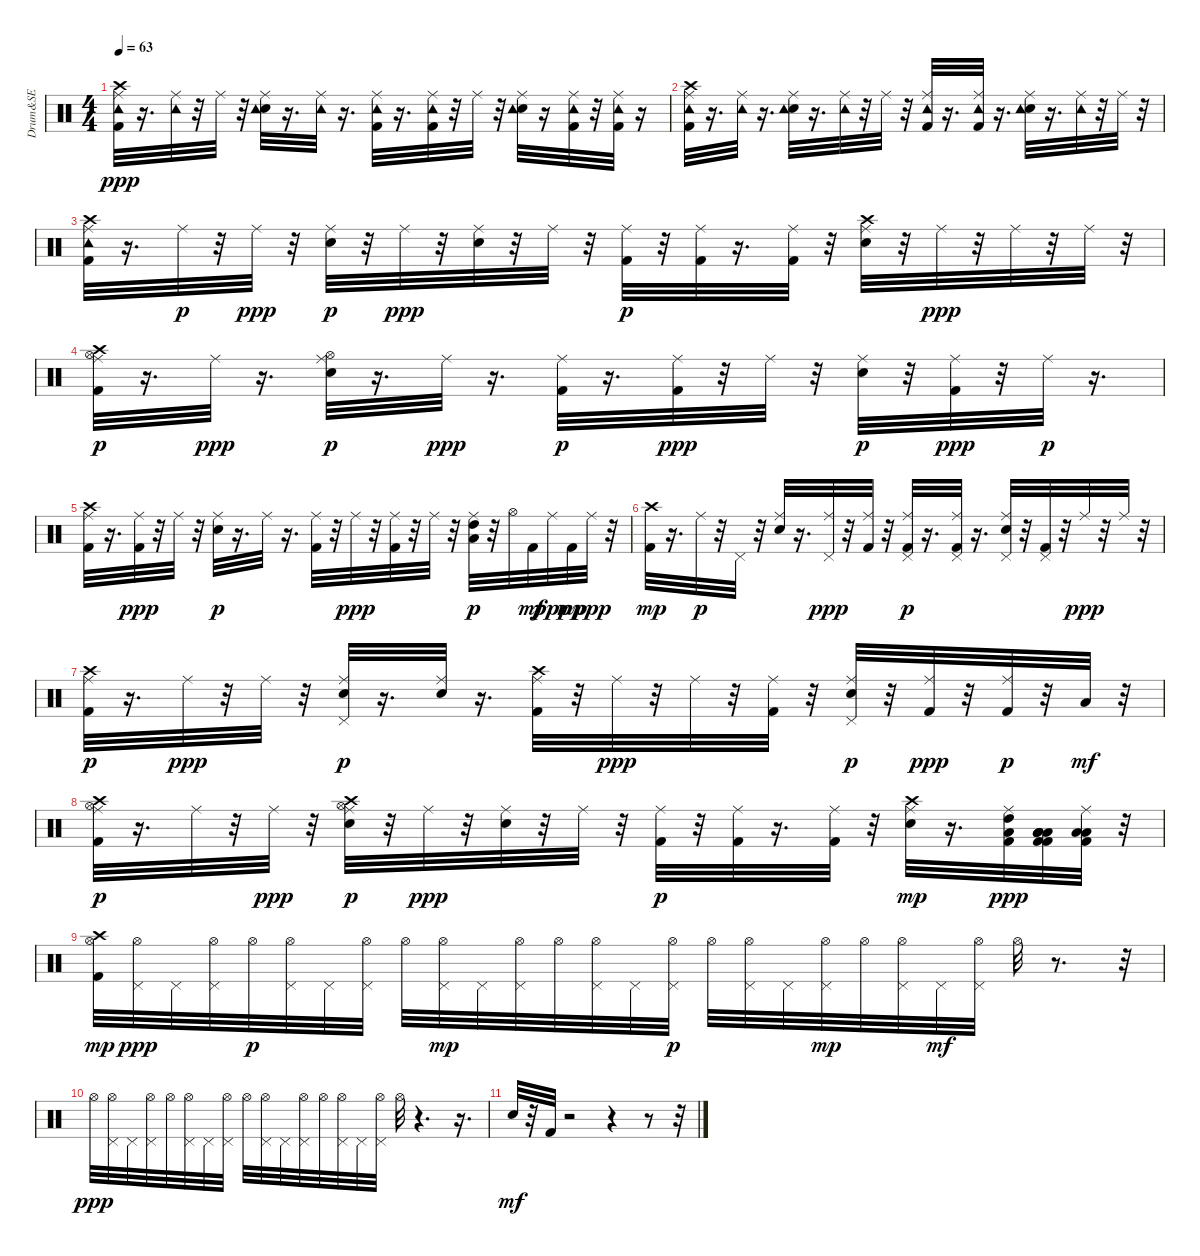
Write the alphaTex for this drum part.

\track ("Drum&SE" "Drum&SE") {instrument percussion}
\staff {score}
\articulation defaults
\ts (4 4)
\tempo 63
\clef neutral
\ks c
("Kick (hit) 2" "Crash high (hit)" "Ride (middle)" "Tambourine (hit)").32{dy ppp} r.16{d} ("Ride (middle)" "Tambourine (hit)").32 r.32 "Ride (middle)".32 r.32 ("Snare (hit) 2" "Ride (middle)" "Tambourine (hit)").32 r.16{d} ("Ride (middle)" "Tambourine (hit)").32 r.16{d} ("Kick (hit) 2" "Ride (middle)" "Tambourine (hit)").32 r.16{d} ("Kick (hit) 2" "Ride (middle)" "Tambourine (hit)").32 r.32 "Ride (middle)".32 r.32 ("Snare (hit) 2" "Ride (middle)" "Tambourine (hit)").32 r.16 ("Kick (hit) 2" "Ride (middle)" "Tambourine (hit)").32 r.32 ("Kick (hit) 2" "Ride (middle)" "Tambourine (hit)").32 r.16 |
("Kick (hit) 2" "Crash high (hit)" "Ride (middle)" "Tambourine (hit)").32 r.16{d} ("Ride (middle)" "Tambourine (hit)").32 r.16{d} ("Snare (hit) 2" "Ride (middle)" "Tambourine (hit)").32 r.16{d} ("Ride (middle)" "Tambourine (hit)").32 r.32 "Ride (middle)".32 r.32 ("Ride (middle)" "Kick (hit) 2" "Tambourine (hit)").32 r.16{d} ("Kick (hit) 2" "Ride (middle)" "Tambourine (hit)").32 r.16{d} ("Snare (hit) 2" "Ride (middle)" "Tambourine (hit)").32 r.16{d} ("Ride (middle)" "Tambourine (hit)").32 r.32 "Ride (middle)".32 r.32 |
("Kick (hit) 2" "Crash high (hit)" "Ride (middle)" "Tambourine (hit)").32 r.16{d} "Ride (middle)".32{dy p} r.32 "Ride (middle)".32{dy ppp} r.32 ("Snare (hit) 2" "Ride (middle)").32{dy p} r.32 "Ride (middle)".32{dy ppp} r.32 ("Snare (hit) 2" "Ride (middle)").32 r.32 "Ride (middle)".32 r.32 ("Kick (hit) 2" "Ride (middle)").32{dy p} r.32 ("Kick (hit) 2" "Ride (middle)").32 r.16{d} ("Kick (hit) 2" "Ride (middle)").32 r.32 ("Snare (hit) 2" "Crash high (hit)" "Ride (middle)").32 r.32 "Ride (middle)".32{dy ppp} r.32 "Ride (middle)".32 r.32 "Ride (middle)".32 r.32 |
("Kick (hit) 2" "Hi-Hat (open)" "Crash high (hit)" "Ride (middle)").32{dy p} r.16{d} "Ride (middle)".32{dy ppp} r.16{d} ("Snare (hit) 2" "Hi-Hat (open)" "Ride (middle)").32{dy p} r.16{d} "Ride (middle)".32{dy ppp} r.16{d} ("Kick (hit) 2" "Ride (middle)").32{dy p} r.16{d} ("Kick (hit) 2" "Ride (middle)").32{dy ppp} r.32 "Ride (middle)".32 r.32 ("Snare (hit) 2" "Ride (middle)").32{dy p} r.32 ("Kick (hit) 2" "Ride (middle)").32{dy ppp} r.32 "Ride (middle)".32{dy p} r.16{d} |
("Kick (hit) 2" "Crash high (hit)" "Ride (middle)").32 r.16{d} ("Kick (hit) 2" "Ride (middle)").32{dy ppp} r.32 "Ride (middle)".32 r.32 ("Snare (hit) 2" "Ride (middle)").32{dy p} r.16{d} "Ride (middle)".32 r.16{d} ("Kick (hit) 2" "Ride (middle)").32 r.32 "Ride (middle)".32{dy ppp} r.32 ("Kick (hit) 2" "Ride (middle)").32 r.32 "Ride (middle)".32 r.32 ("Low Tom (hit)" "High Tom (hit)" "Ride (middle)").32{dy p} r.32 "Hi-Hat (open)".32 "Kick (hit) 2".32{dy mf} "Ride (middle)".32{dy ppp} "Kick (hit) 2".32{dy mp} "Ride (middle)".32{dy ppp} r.32 |
("Kick (hit) 2" "Crash high (hit)").32{dy mp} r.16{d} "Ride (middle)".32{dy p} r.32 "Pedal Hi-Hat (hit)".32 r.32 ("Snare (hit) 2" "Ride (middle)").32 r.16{d} ("Pedal Hi-Hat (hit)" "Ride (middle)").32{dy ppp} r.32 ("Kick (hit) 2" "Ride (middle)").32 r.32 ("Kick (hit) 2" "Pedal Hi-Hat (hit)" "Ride (middle)").32{dy p} r.16{d} ("Kick (hit) 2" "Pedal Hi-Hat (hit)" "Ride (middle)").32 r.16{d} ("Snare (hit) 2" "Pedal Hi-Hat (hit)" "Ride (middle)").32 r.32 ("Kick (hit) 2" "Pedal Hi-Hat (hit)").32 r.32 "Ride (middle)".32{dy ppp} r.32 "Ride (middle)".32 r.32 |
("Kick (hit) 2" "Crash high (hit)" "Ride (middle)").32{dy p} r.16{d} "Ride (middle)".32{dy ppp} r.32 "Ride (middle)".32 r.32 ("Snare (hit) 2" "Pedal Hi-Hat (hit)" "Ride (middle)").32{dy p} r.16{d} ("Snare (hit) 2" "Ride (middle)").32 r.16{d} ("Kick (hit) 2" "Crash high (hit)" "Ride (middle)").32 r.32 "Ride (middle)".32{dy ppp} r.32 "Ride (middle)".32 r.32 ("Kick (hit) 2" "Ride (middle)").32 r.32 ("Snare (hit) 2" "Pedal Hi-Hat (hit)" "Ride (middle)").32{dy p} r.32 ("Kick (hit) 2" "Ride (middle)").32{dy ppp} r.32 ("Kick (hit) 2" "Ride (middle)").32{dy p} r.32 "Low Floor Tom (hit)".32{dy mf} r.32 |
("Kick (hit) 2" "Hi-Hat (open)" "Crash high (hit)" "Ride (middle)").32{dy p} r.16{d} "Ride (middle)".32 r.32 "Ride (middle)".32{dy ppp} r.32 ("Snare (hit) 2" "Hi-Hat (open)" "Crash high (hit)" "Ride (middle)").32{dy p} r.32 "Ride (middle)".32{dy ppp} r.32 ("Snare (hit) 2" "Ride (middle)").32 r.32 "Ride (middle)".32 r.32 ("Kick (hit) 2" "Ride (middle)").32{dy p} r.32 ("Kick (hit) 2" "Ride (middle)").32 r.16{d} ("Kick (hit) 2" "Ride (middle)").32 r.32 ("Snare (hit) 2" "Crash high (hit)" "Ride (middle)").32{dy mp} r.16{d} ("High Tom (hit)" "Kick (hit) 2" "Low Floor Tom (hit)" "Ride (middle)").32{dy ppp} ("Kick (hit) 2" "Low Floor Tom (hit)" "Low Tom (hit)" "Kick (hit) 2" "Low Floor Tom (hit)" "Low Tom (hit)").32 ("Low Floor Tom (hit)" "Kick (hit) 2" "Low Floor Tom (hit)" "Ride (middle)").32 r.32 |
("Kick (hit) 2" "Hi-Hat (open)" "Crash high (hit)").32{dy mp} ("Pedal Hi-Hat (hit)" "Hi-Hat (open)").32{dy ppp} "Pedal Hi-Hat (hit)".32 ("Hi-Hat (open)" "Pedal Hi-Hat (hit)").32 "Hi-Hat (open)".32{dy p} ("Pedal Hi-Hat (hit)" "Hi-Hat (open)").32 "Pedal Hi-Hat (hit)".32 ("Hi-Hat (open)" "Pedal Hi-Hat (hit)").32 "Hi-Hat (open)".32 ("Pedal Hi-Hat (hit)" "Hi-Hat (open)").32{dy mp} "Pedal Hi-Hat (hit)".32 ("Hi-Hat (open)" "Pedal Hi-Hat (hit)").32 "Hi-Hat (open)".32 ("Pedal Hi-Hat (hit)" "Hi-Hat (open)").32 "Pedal Hi-Hat (hit)".32 ("Hi-Hat (open)" "Pedal Hi-Hat (hit)").32{dy p} "Hi-Hat (open)".32 ("Pedal Hi-Hat (hit)" "Hi-Hat (open)").32 "Pedal Hi-Hat (hit)".32 ("Hi-Hat (open)" "Pedal Hi-Hat (hit)").32{dy mp} "Hi-Hat (open)".32 ("Pedal Hi-Hat (hit)" "Hi-Hat (open)").32 "Pedal Hi-Hat (hit)".32{dy mf} ("Hi-Hat (open)" "Pedal Hi-Hat (hit)").32 "Hi-Hat (open)".32 r.8{d} r.32 |
"Hi-Hat (open)".32{dy ppp} ("Pedal Hi-Hat (hit)" "Hi-Hat (open)").32 "Pedal Hi-Hat (hit)".32 ("Hi-Hat (open)" "Pedal Hi-Hat (hit)").32 "Hi-Hat (open)".32 ("Pedal Hi-Hat (hit)" "Hi-Hat (open)").32 "Pedal Hi-Hat (hit)".32 ("Hi-Hat (open)" "Pedal Hi-Hat (hit)").32 "Hi-Hat (open)".32 ("Pedal Hi-Hat (hit)" "Hi-Hat (open)").32 "Pedal Hi-Hat (hit)".32 ("Hi-Hat (open)" "Pedal Hi-Hat (hit)").32 "Hi-Hat (open)".32 ("Pedal Hi-Hat (hit)" "Hi-Hat (open)").32 "Pedal Hi-Hat (hit)".32 ("Hi-Hat (open)" "Pedal Hi-Hat (hit)").32 "Hi-Hat (open)".32 r.4{d} r.16{d} |
"Snare (hit) 2".32{dy mf} r.32 "Kick (hit) 2".32 r.2 r.4 r.8 r.32
